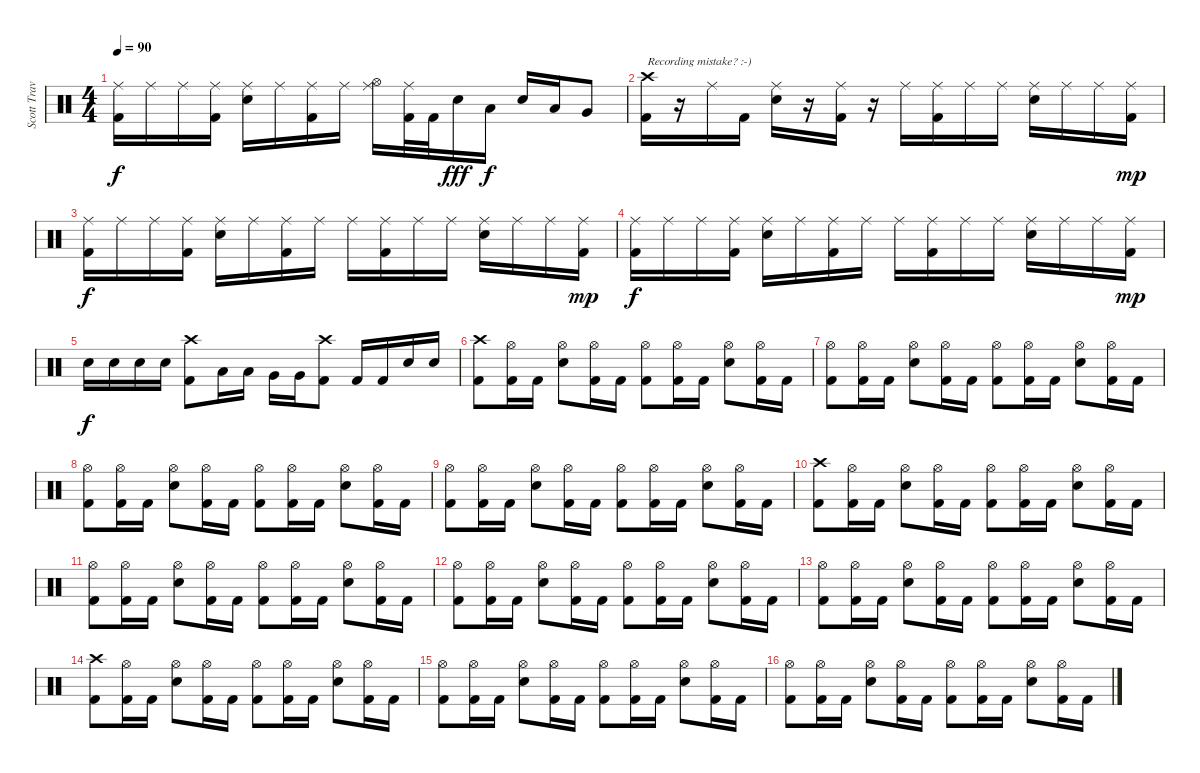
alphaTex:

\track ("Scott Travis" "Scott Trav") {instrument percussion}
\staff {score}
\articulation defaults
\ts (4 4)
\tempo 90
\clef neutral
\ks c
("Kick (hit) 2" "Ride (middle)").16{dy f} "Ride (middle)".16 "Ride (middle)".16 ("Ride (middle)" "Kick (hit) 2").16 ("Ride (middle)" "Electric Snare (hit)").16 "Ride (middle)".16 ("Ride (middle)" "Kick (hit) 2").16 "Ride (middle)".16 ("Ride (middle)" "Hi-Hat (open)").16 ("Ride (middle)" "Kick (hit) 2").32 "Kick (hit) 2".32 "Electric Snare (hit)".16{dy fff} "Low Tom (hit)".16{dy f} "Electric Snare (hit)".16 "Low Tom (hit)".16 "Very Low Tom (hit)".8 |
("Kick (hit) 2" "Crash high (hit)").16{txt "Recording mistake? :-)"} r.16 "Ride (middle)".16 "Kick (hit) 2".16 ("Ride (middle)" "Electric Snare (hit)").16 r.16 ("Ride (middle)" "Kick (hit) 2").16 r.16 "Ride (middle)".16 ("Ride (middle)" "Kick (hit) 2").16 "Ride (middle)".16 "Ride (middle)".16 ("Ride (middle)" "Electric Snare (hit)").16 "Ride (middle)".16 "Ride (middle)".16 ("Ride (middle)" "Kick (hit) 2").16{dy mp} |
("Kick (hit) 2" "Ride (middle)").16{dy f} "Ride (middle)".16 "Ride (middle)".16 ("Ride (middle)" "Kick (hit) 2").16 ("Ride (middle)" "Electric Snare (hit)").16 "Ride (middle)".16 ("Ride (middle)" "Kick (hit) 2").16 "Ride (middle)".16 "Ride (middle)".16 ("Ride (middle)" "Kick (hit) 2").16 "Ride (middle)".16 "Ride (middle)".16 ("Ride (middle)" "Electric Snare (hit)").16 "Ride (middle)".16 "Ride (middle)".16 ("Ride (middle)" "Kick (hit) 2").16{dy mp} |
("Kick (hit) 2" "Ride (middle)").16{dy f} "Ride (middle)".16 "Ride (middle)".16 ("Ride (middle)" "Kick (hit) 2").16 ("Ride (middle)" "Electric Snare (hit)").16 "Ride (middle)".16 ("Ride (middle)" "Kick (hit) 2").16 "Ride (middle)".16 "Ride (middle)".16 ("Ride (middle)" "Kick (hit) 2").16 "Ride (middle)".16 "Ride (middle)".16 ("Ride (middle)" "Electric Snare (hit)").16 "Ride (middle)".16 "Ride (middle)".16 ("Ride (middle)" "Kick (hit) 2").16{dy mp} |
"Electric Snare (hit)".16{dy f} "Electric Snare (hit)".16 "Electric Snare (hit)".16 "Electric Snare (hit)".16 ("Kick (hit) 2" "Crash high (hit)").8 "Low Tom (hit)".16 "Low Tom (hit)".16 "Very Low Tom (hit)".16 "Very Low Tom (hit)".16 ("Kick (hit) 2" "Crash high (hit)").8 "Kick (hit) 2".16 "Kick (hit) 2".16 "Electric Snare (hit)".16 "Electric Snare (hit)".16 |
("Kick (hit) 2" "Crash high (hit)").8 ("Kick (hit) 2" "Hi-Hat (open)").16 "Kick (hit) 2".16 ("Electric Snare (hit)" "Hi-Hat (open)").8 ("Kick (hit) 2" "Hi-Hat (open)").16 "Kick (hit) 2".16 ("Kick (hit) 2" "Hi-Hat (open)").8 ("Kick (hit) 2" "Hi-Hat (open)").16 "Kick (hit) 2".16 ("Electric Snare (hit)" "Hi-Hat (open)").8 ("Kick (hit) 2" "Hi-Hat (open)").16 "Kick (hit) 2".16 |
("Kick (hit) 2" "Hi-Hat (open)").8 ("Kick (hit) 2" "Hi-Hat (open)").16 "Kick (hit) 2".16 ("Electric Snare (hit)" "Hi-Hat (open)").8 ("Kick (hit) 2" "Hi-Hat (open)").16 "Kick (hit) 2".16 ("Kick (hit) 2" "Hi-Hat (open)").8 ("Kick (hit) 2" "Hi-Hat (open)").16 "Kick (hit) 2".16 ("Electric Snare (hit)" "Hi-Hat (open)").8 ("Kick (hit) 2" "Hi-Hat (open)").16 "Kick (hit) 2".16 |
("Kick (hit) 2" "Hi-Hat (open)").8 ("Kick (hit) 2" "Hi-Hat (open)").16 "Kick (hit) 2".16 ("Electric Snare (hit)" "Hi-Hat (open)").8 ("Kick (hit) 2" "Hi-Hat (open)").16 "Kick (hit) 2".16 ("Kick (hit) 2" "Hi-Hat (open)").8 ("Kick (hit) 2" "Hi-Hat (open)").16 "Kick (hit) 2".16 ("Electric Snare (hit)" "Hi-Hat (open)").8 ("Kick (hit) 2" "Hi-Hat (open)").16 "Kick (hit) 2".16 |
("Kick (hit) 2" "Hi-Hat (open)").8 ("Kick (hit) 2" "Hi-Hat (open)").16 "Kick (hit) 2".16 ("Electric Snare (hit)" "Hi-Hat (open)").8 ("Kick (hit) 2" "Hi-Hat (open)").16 "Kick (hit) 2".16 ("Kick (hit) 2" "Hi-Hat (open)").8 ("Kick (hit) 2" "Hi-Hat (open)").16 "Kick (hit) 2".16 ("Electric Snare (hit)" "Hi-Hat (open)").8 ("Kick (hit) 2" "Hi-Hat (open)").16 "Kick (hit) 2".16 |
("Kick (hit) 2" "Crash high (hit)").8 ("Kick (hit) 2" "Hi-Hat (open)").16 "Kick (hit) 2".16 ("Electric Snare (hit)" "Hi-Hat (open)").8 ("Kick (hit) 2" "Hi-Hat (open)").16 "Kick (hit) 2".16 ("Kick (hit) 2" "Hi-Hat (open)").8 ("Kick (hit) 2" "Hi-Hat (open)").16 "Kick (hit) 2".16 ("Electric Snare (hit)" "Hi-Hat (open)").8 ("Kick (hit) 2" "Hi-Hat (open)").16 "Kick (hit) 2".16 |
("Kick (hit) 2" "Hi-Hat (open)").8 ("Kick (hit) 2" "Hi-Hat (open)").16 "Kick (hit) 2".16 ("Electric Snare (hit)" "Hi-Hat (open)").8 ("Kick (hit) 2" "Hi-Hat (open)").16 "Kick (hit) 2".16 ("Kick (hit) 2" "Hi-Hat (open)").8 ("Kick (hit) 2" "Hi-Hat (open)").16 "Kick (hit) 2".16 ("Electric Snare (hit)" "Hi-Hat (open)").8 ("Kick (hit) 2" "Hi-Hat (open)").16 "Kick (hit) 2".16 |
("Kick (hit) 2" "Hi-Hat (open)").8 ("Kick (hit) 2" "Hi-Hat (open)").16 "Kick (hit) 2".16 ("Electric Snare (hit)" "Hi-Hat (open)").8 ("Kick (hit) 2" "Hi-Hat (open)").16 "Kick (hit) 2".16 ("Kick (hit) 2" "Hi-Hat (open)").8 ("Kick (hit) 2" "Hi-Hat (open)").16 "Kick (hit) 2".16 ("Electric Snare (hit)" "Hi-Hat (open)").8 ("Kick (hit) 2" "Hi-Hat (open)").16 "Kick (hit) 2".16 |
("Kick (hit) 2" "Hi-Hat (open)").8 ("Kick (hit) 2" "Hi-Hat (open)").16 "Kick (hit) 2".16 ("Electric Snare (hit)" "Hi-Hat (open)").8 ("Kick (hit) 2" "Hi-Hat (open)").16 "Kick (hit) 2".16 ("Kick (hit) 2" "Hi-Hat (open)").8 ("Kick (hit) 2" "Hi-Hat (open)").16 "Kick (hit) 2".16 ("Electric Snare (hit)" "Hi-Hat (open)").8 ("Kick (hit) 2" "Hi-Hat (open)").16 "Kick (hit) 2".16 |
("Kick (hit) 2" "Crash high (hit)").8 ("Kick (hit) 2" "Hi-Hat (open)").16 "Kick (hit) 2".16 ("Electric Snare (hit)" "Hi-Hat (open)").8 ("Kick (hit) 2" "Hi-Hat (open)").16 "Kick (hit) 2".16 ("Kick (hit) 2" "Hi-Hat (open)").8 ("Kick (hit) 2" "Hi-Hat (open)").16 "Kick (hit) 2".16 ("Electric Snare (hit)" "Hi-Hat (open)").8 ("Kick (hit) 2" "Hi-Hat (open)").16 "Kick (hit) 2".16 |
("Kick (hit) 2" "Hi-Hat (open)").8 ("Kick (hit) 2" "Hi-Hat (open)").16 "Kick (hit) 2".16 ("Electric Snare (hit)" "Hi-Hat (open)").8 ("Kick (hit) 2" "Hi-Hat (open)").16 "Kick (hit) 2".16 ("Kick (hit) 2" "Hi-Hat (open)").8 ("Kick (hit) 2" "Hi-Hat (open)").16 "Kick (hit) 2".16 ("Electric Snare (hit)" "Hi-Hat (open)").8 ("Kick (hit) 2" "Hi-Hat (open)").16 "Kick (hit) 2".16 |
("Kick (hit) 2" "Hi-Hat (open)").8 ("Kick (hit) 2" "Hi-Hat (open)").16 "Kick (hit) 2".16 ("Electric Snare (hit)" "Hi-Hat (open)").8 ("Kick (hit) 2" "Hi-Hat (open)").16 "Kick (hit) 2".16 ("Kick (hit) 2" "Hi-Hat (open)").8 ("Kick (hit) 2" "Hi-Hat (open)").16 "Kick (hit) 2".16 ("Electric Snare (hit)" "Hi-Hat (open)").8 ("Kick (hit) 2" "Hi-Hat (open)").16 "Kick (hit) 2".16
